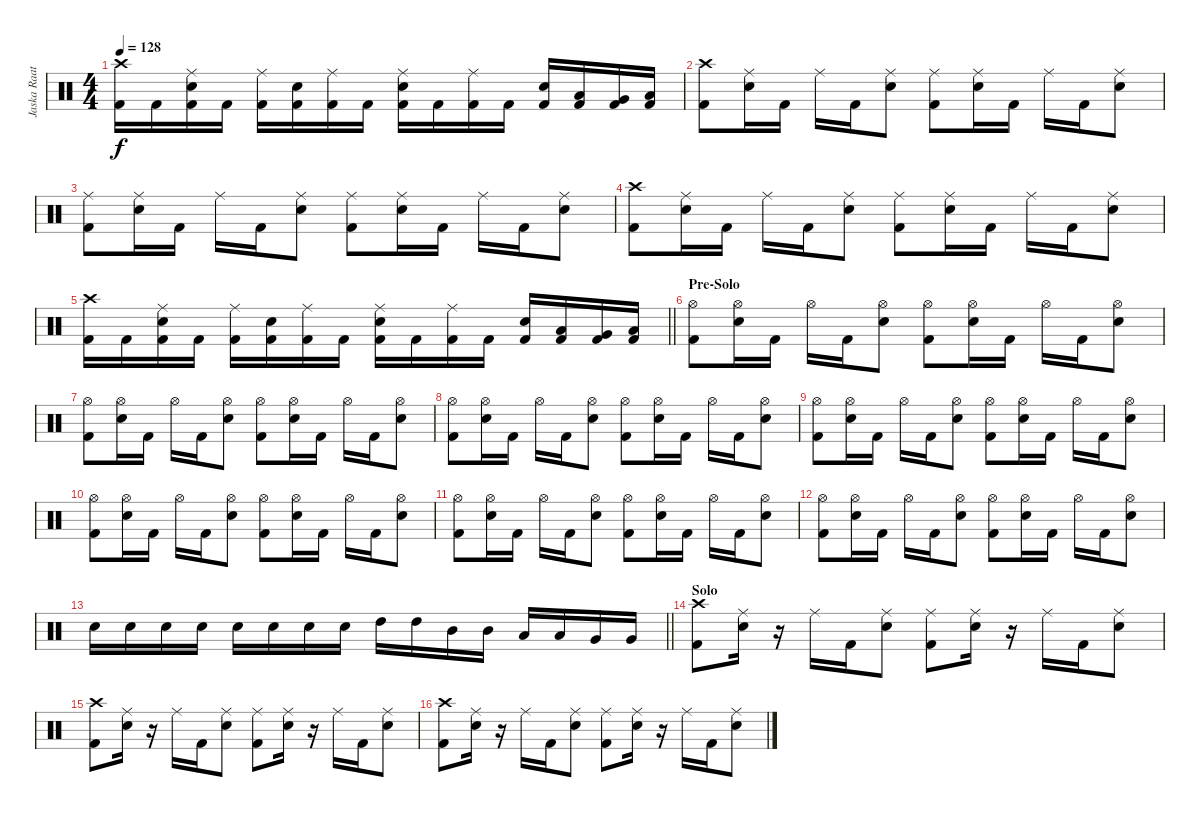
\track ("Jaska Raatikainen" "Jaska Raat") {instrument percussion}
\staff {score}
\articulation defaults
\ts (4 4)
\tempo 128
\clef neutral
\ks c
("Crash high (hit)" "Kick (hit) 2").16{dy f} "Kick (hit) 2".16 ("Ride (middle)" "Electric Snare (hit)" "Kick (hit) 2").16 "Kick (hit) 2".16 ("Ride (middle)" "Kick (hit) 2").16 ("Electric Snare (hit)" "Kick (hit) 2").16 ("Ride (middle)" "Kick (hit) 2").16 "Kick (hit) 2".16 ("Ride (middle)" "Electric Snare (hit)" "Kick (hit) 2").16 "Kick (hit) 2".16 ("Ride (middle)" "Kick (hit) 2").16 "Kick (hit) 2".16 ("Electric Snare (hit)" "Kick (hit) 2").16 ("Low Tom (hit)" "Kick (hit) 2").16 ("Very Low Tom (hit)" "Kick (hit) 2").16 ("Low Floor Tom (hit)" "Kick (hit) 2").16 |
("Crash high (hit)" "Kick (hit) 2").8 ("Ride (middle)" "Electric Snare (hit)").16 "Kick (hit) 2".16 "Ride (middle)".16 "Kick (hit) 2".16 ("Ride (middle)" "Electric Snare (hit)").8 ("Ride (middle)" "Kick (hit) 2").8 ("Ride (middle)" "Electric Snare (hit)").16 "Kick (hit) 2".16 "Ride (middle)".16 "Kick (hit) 2".16 ("Ride (middle)" "Electric Snare (hit)").8 |
("Ride (middle)" "Kick (hit) 2").8 ("Ride (middle)" "Electric Snare (hit)").16 "Kick (hit) 2".16 "Ride (middle)".16 "Kick (hit) 2".16 ("Ride (middle)" "Electric Snare (hit)").8 ("Ride (middle)" "Kick (hit) 2").8 ("Ride (middle)" "Electric Snare (hit)").16 "Kick (hit) 2".16 "Ride (middle)".16 "Kick (hit) 2".16 ("Ride (middle)" "Electric Snare (hit)").8 |
("Crash high (hit)" "Kick (hit) 2").8 ("Ride (middle)" "Electric Snare (hit)").16 "Kick (hit) 2".16 "Ride (middle)".16 "Kick (hit) 2".16 ("Ride (middle)" "Electric Snare (hit)").8 ("Ride (middle)" "Kick (hit) 2").8 ("Ride (middle)" "Electric Snare (hit)").16 "Kick (hit) 2".16 "Ride (middle)".16 "Kick (hit) 2".16 ("Ride (middle)" "Electric Snare (hit)").8 |
\barLineRight lightlight
("Crash high (hit)" "Kick (hit) 2").16 "Kick (hit) 2".16 ("Ride (middle)" "Electric Snare (hit)" "Kick (hit) 2").16 "Kick (hit) 2".16 ("Ride (middle)" "Kick (hit) 2").16 ("Electric Snare (hit)" "Kick (hit) 2").16 ("Ride (middle)" "Kick (hit) 2").16 "Kick (hit) 2".16 ("Ride (middle)" "Electric Snare (hit)" "Kick (hit) 2").16 "Kick (hit) 2".16 ("Ride (middle)" "Kick (hit) 2").16 "Kick (hit) 2".16 ("Electric Snare (hit)" "Kick (hit) 2").16 ("Low Tom (hit)" "Kick (hit) 2").16 ("Very Low Tom (hit)" "Kick (hit) 2").16 ("Low Floor Tom (hit)" "Kick (hit) 2").16 |
\section ("" "Pre-Solo")
("Hi-Hat (open)" "Kick (hit) 2").8 ("Hi-Hat (open)" "Electric Snare (hit)").16 "Kick (hit) 2".16 "Hi-Hat (open)".16 "Kick (hit) 2".16 ("Hi-Hat (open)" "Electric Snare (hit)").8 ("Hi-Hat (open)" "Kick (hit) 2").8 ("Hi-Hat (open)" "Electric Snare (hit)").16 "Kick (hit) 2".16 "Hi-Hat (open)".16 "Kick (hit) 2".16 ("Hi-Hat (open)" "Electric Snare (hit)").8 |
("Hi-Hat (open)" "Kick (hit) 2").8 ("Hi-Hat (open)" "Electric Snare (hit)").16 "Kick (hit) 2".16 "Hi-Hat (open)".16 "Kick (hit) 2".16 ("Hi-Hat (open)" "Electric Snare (hit)").8 ("Hi-Hat (open)" "Kick (hit) 2").8 ("Hi-Hat (open)" "Electric Snare (hit)").16 "Kick (hit) 2".16 "Hi-Hat (open)".16 "Kick (hit) 2".16 ("Hi-Hat (open)" "Electric Snare (hit)").8 |
("Hi-Hat (open)" "Kick (hit) 2").8 ("Hi-Hat (open)" "Electric Snare (hit)").16 "Kick (hit) 2".16 "Hi-Hat (open)".16 "Kick (hit) 2".16 ("Hi-Hat (open)" "Electric Snare (hit)").8 ("Hi-Hat (open)" "Kick (hit) 2").8 ("Hi-Hat (open)" "Electric Snare (hit)").16 "Kick (hit) 2".16 "Hi-Hat (open)".16 "Kick (hit) 2".16 ("Hi-Hat (open)" "Electric Snare (hit)").8 |
("Hi-Hat (open)" "Kick (hit) 2").8 ("Hi-Hat (open)" "Electric Snare (hit)").16 "Kick (hit) 2".16 "Hi-Hat (open)".16 "Kick (hit) 2".16 ("Hi-Hat (open)" "Electric Snare (hit)").8 ("Hi-Hat (open)" "Kick (hit) 2").8 ("Hi-Hat (open)" "Electric Snare (hit)").16 "Kick (hit) 2".16 "Hi-Hat (open)".16 "Kick (hit) 2".16 ("Hi-Hat (open)" "Electric Snare (hit)").8 |
("Hi-Hat (open)" "Kick (hit) 2").8 ("Hi-Hat (open)" "Electric Snare (hit)").16 "Kick (hit) 2".16 "Hi-Hat (open)".16 "Kick (hit) 2".16 ("Hi-Hat (open)" "Electric Snare (hit)").8 ("Hi-Hat (open)" "Kick (hit) 2").8 ("Hi-Hat (open)" "Electric Snare (hit)").16 "Kick (hit) 2".16 "Hi-Hat (open)".16 "Kick (hit) 2".16 ("Hi-Hat (open)" "Electric Snare (hit)").8 |
("Hi-Hat (open)" "Kick (hit) 2").8 ("Hi-Hat (open)" "Electric Snare (hit)").16 "Kick (hit) 2".16 "Hi-Hat (open)".16 "Kick (hit) 2".16 ("Hi-Hat (open)" "Electric Snare (hit)").8 ("Hi-Hat (open)" "Kick (hit) 2").8 ("Hi-Hat (open)" "Electric Snare (hit)").16 "Kick (hit) 2".16 "Hi-Hat (open)".16 "Kick (hit) 2".16 ("Hi-Hat (open)" "Electric Snare (hit)").8 |
("Hi-Hat (open)" "Kick (hit) 2").8 ("Hi-Hat (open)" "Electric Snare (hit)").16 "Kick (hit) 2".16 "Hi-Hat (open)".16 "Kick (hit) 2".16 ("Hi-Hat (open)" "Electric Snare (hit)").8 ("Hi-Hat (open)" "Kick (hit) 2").8 ("Hi-Hat (open)" "Electric Snare (hit)").16 "Kick (hit) 2".16 "Hi-Hat (open)".16 "Kick (hit) 2".16 ("Hi-Hat (open)" "Electric Snare (hit)").8 |
\barLineRight lightlight "Electric Snare (hit)".16 "Electric Snare (hit)".16 "Electric Snare (hit)".16 "Electric Snare (hit)".16 "Electric Snare (hit)".16 "Electric Snare (hit)".16 "Electric Snare (hit)".16 "Electric Snare (hit)".16 "High Tom (hit)".16 "High Tom (hit)".16 "Mid Tom (hit)".16 "Mid Tom (hit)".16 "Low Tom (hit)".16 "Low Tom (hit)".16 "Very Low Tom (hit)".16 "Very Low Tom (hit)".16
|
\section ("" "Solo")
("Crash high (hit)" "Kick (hit) 2").8 ("Ride (middle)" "Electric Snare (hit)").16 r.16 "Ride (middle)".16 "Kick (hit) 2".16 ("Ride (middle)" "Electric Snare (hit)").8 ("Ride (middle)" "Kick (hit) 2").8 ("Ride (middle)" "Electric Snare (hit)").16 r.16 "Ride (middle)".16 "Kick (hit) 2".16 ("Ride (middle)" "Electric Snare (hit)").8 |
("Crash high (hit)" "Kick (hit) 2").8 ("Ride (middle)" "Electric Snare (hit)").16 r.16 "Ride (middle)".16 "Kick (hit) 2".16 ("Ride (middle)" "Electric Snare (hit)").8 ("Ride (middle)" "Kick (hit) 2").8 ("Ride (middle)" "Electric Snare (hit)").16 r.16 "Ride (middle)".16 "Kick (hit) 2".16 ("Ride (middle)" "Electric Snare (hit)").8 |
("Crash high (hit)" "Kick (hit) 2").8 ("Ride (middle)" "Electric Snare (hit)").16 r.16 "Ride (middle)".16 "Kick (hit) 2".16 ("Ride (middle)" "Electric Snare (hit)").8 ("Ride (middle)" "Kick (hit) 2").8 ("Ride (middle)" "Electric Snare (hit)").16 r.16 "Ride (middle)".16 "Kick (hit) 2".16 ("Ride (middle)" "Electric Snare (hit)").8
